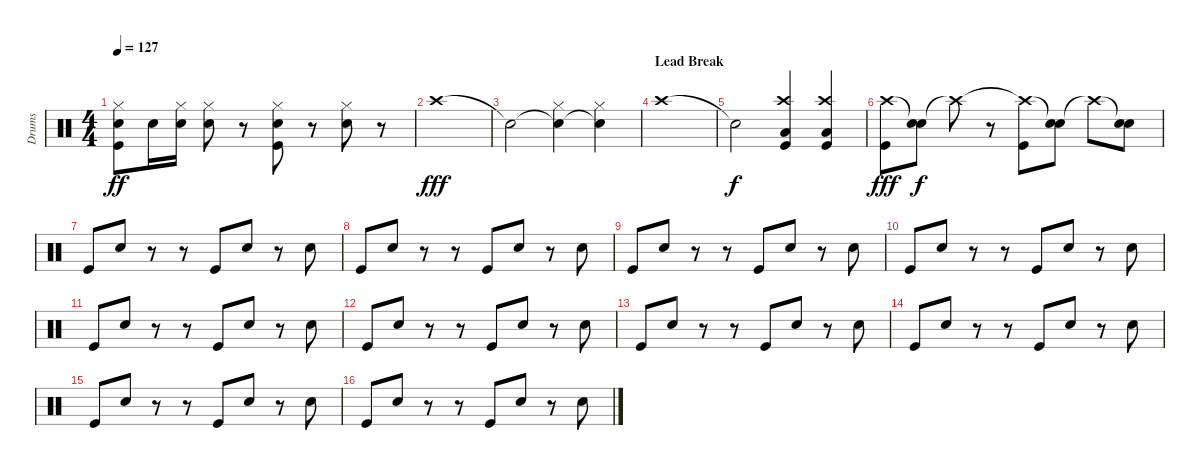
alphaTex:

\track ("Drums" "Drums") {instrument percussion}
\staff {score}
\articulation defaults
\ts (4 4)
\tempo 127
\clef neutral
\ks c
("Hi-Hat (closed)" "Electric Snare (hit)" "Kick (hit)").8{dy ff} "Electric Snare (hit)".16 ("Hi-Hat (closed)" "Electric Snare (hit)").16 ("Hi-Hat (closed)" "Electric Snare (hit)").8 r.8 ("Hi-Hat (closed)" "Electric Snare (hit)" "Kick (hit)").8 r.8 ("Hi-Hat (closed)" "Electric Snare (hit)").8 r.8 |
"Crash high (hit)".1{dy fff} |
"Snare (hit)"{t}.2 ("Snare (hit)"{t} "Hi-Hat (closed)").4 ("Snare (hit)"{t} "Hi-Hat (closed)").4 |
\section ("" "Lead Break")
"Crash high (hit)".1 |
"Snare (hit)"{t}.2{dy f} ("Crash high (hit)" "Low Floor Tom (hit)" "Kick (hit)").4 ("Crash high (hit)" "Low Floor Tom (hit)" "Kick (hit)").4 |
("Crash high (hit)" "Kick (hit)").8{dy fff} ("Snare (hit)"{t} "Snare (hit) 2").8{dy f} "Crash high (hit)"{t}.8 r.8 ("Crash high (hit)"{t} "Kick (hit)").8 ("Snare (hit)"{t} "Snare (hit) 2").8 "Crash high (hit)"{t}.8 ("Snare (hit)"{t} "Snare (hit) 2").8 |
"Kick (hit)".8 "Snare (hit) 2".8 r.8 r.8 "Kick (hit)".8 "Snare (hit) 2".8 r.8 "Snare (hit) 2".8 |
"Kick (hit)".8 "Snare (hit) 2".8 r.8 r.8 "Kick (hit)".8 "Snare (hit) 2".8 r.8 "Snare (hit) 2".8 |
"Kick (hit)".8 "Snare (hit) 2".8 r.8 r.8 "Kick (hit)".8 "Snare (hit) 2".8 r.8 "Snare (hit) 2".8 |
"Kick (hit)".8 "Snare (hit) 2".8 r.8 r.8 "Kick (hit)".8 "Snare (hit) 2".8 r.8 "Snare (hit) 2".8 |
"Kick (hit)".8 "Snare (hit) 2".8 r.8 r.8 "Kick (hit)".8 "Snare (hit) 2".8 r.8 "Snare (hit) 2".8 |
"Kick (hit)".8 "Snare (hit) 2".8 r.8 r.8 "Kick (hit)".8 "Snare (hit) 2".8 r.8 "Snare (hit) 2".8 |
"Kick (hit)".8 "Snare (hit) 2".8 r.8 r.8 "Kick (hit)".8 "Snare (hit) 2".8 r.8 "Snare (hit) 2".8 |
"Kick (hit)".8 "Snare (hit) 2".8 r.8 r.8 "Kick (hit)".8 "Snare (hit) 2".8 r.8 "Snare (hit) 2".8 |
"Kick (hit)".8 "Snare (hit) 2".8 r.8 r.8 "Kick (hit)".8 "Snare (hit) 2".8 r.8 "Snare (hit) 2".8 |
"Kick (hit)".8 "Snare (hit) 2".8 r.8 r.8 "Kick (hit)".8 "Snare (hit) 2".8 r.8 "Snare (hit) 2".8
